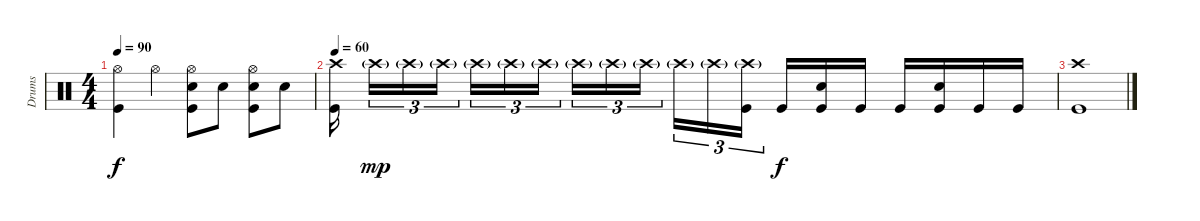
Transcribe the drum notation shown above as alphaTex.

\track ("Drums" "Drums") {instrument percussion}
\staff {score}
\articulation defaults
\ts (4 4)
\tempo 90
\clef neutral
\ks c
("Hi-Hat (open)" "Kick (hit)").4{dy f} "Hi-Hat (open)".4 ("Hi-Hat (open)" "Snare (hit) 2" "Kick (hit)").8 "Snare (hit) 2".8 ("Hi-Hat (open)" "Snare (hit) 2" "Kick (hit)").8 "Snare (hit) 2".8 |
\tempo 60
("Crash high (hit)" "Kick (hit)").16 "Crash high (hit)"{g}.16{tu (3 2) dy mp} "Crash high (hit)"{g}.16{tu (3 2)} "Crash high (hit)"{g}.16{tu (3 2)} "Crash high (hit)"{g}.16{tu (3 2)} "Crash high (hit)"{g}.16{tu (3 2)} "Crash high (hit)"{g}.16{tu (3 2)} "Crash high (hit)"{g}.16{tu (3 2)} "Crash high (hit)"{g}.16{tu (3 2)} "Crash high (hit)"{g}.16{tu (3 2)} "Crash high (hit)"{g}.16{tu (3 2)} "Crash high (hit)"{g}.16{tu (3 2)} ("Crash high (hit)"{g} "Kick (hit)").16{tu (3 2)} "Kick (hit)".16{dy f} ("Snare (hit) 2" "Kick (hit)").16 "Kick (hit)".16 "Kick (hit)".16 ("Snare (hit) 2" "Kick (hit)").16 "Kick (hit)".16 "Kick (hit)".16 |
("Crash high (hit)" "Kick (hit)").1
